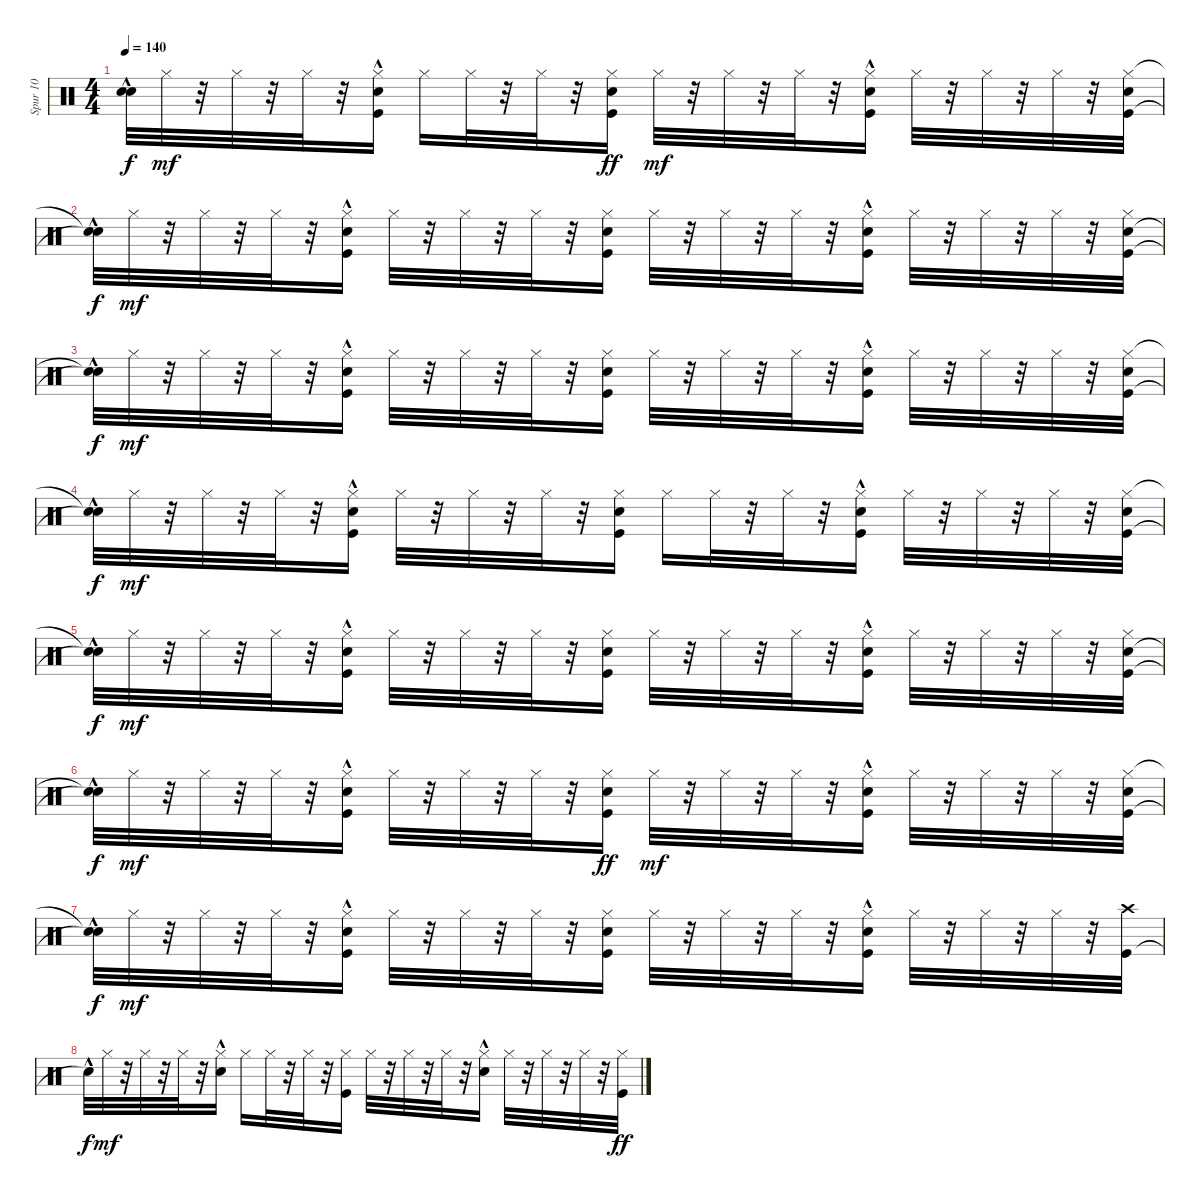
\track ("Spur 10" "Spur 10") {instrument percussion}
\staff {score}
\articulation defaults
\ts (4 4)
\tempo 140
\clef neutral
\ks c
("Snare (hit)"{t} "Snare (hit)"{hac t}).32{dy f} "Hi-Hat (closed)".32{dy mf} r.32 "Hi-Hat (closed)".32 r.32 "Hi-Hat (closed)".32 r.32 ("Kick (hit)"{hac} "Hi-Hat (closed)" "Hand Clap (hit)").16 "Hi-Hat (closed)".16 "Hi-Hat (closed)".32 r.32 "Hi-Hat (closed)".32 r.32 ("Hi-Hat (closed)" "Hand Clap (hit)" "Kick (hit)").16{dy ff} "Hi-Hat (closed)".32{dy mf} r.32 "Hi-Hat (closed)".32 r.32 "Hi-Hat (closed)".32 r.32 ("Kick (hit)"{hac} "Hi-Hat (closed)" "Hand Clap (hit)").16 "Hi-Hat (closed)".32 r.32 "Hi-Hat (closed)".32 r.32 "Hi-Hat (closed)".32 r.32 ("Kick (hit)" "Hi-Hat (closed)" "Hand Clap (hit)").32 |
("Snare (hit)"{hac t} "Snare (hit)"{t}).32{dy f} "Hi-Hat (closed)".32{dy mf} r.32 "Hi-Hat (closed)".32 r.32 "Hi-Hat (closed)".32 r.32 ("Hand Clap (hit)" "Kick (hit)"{hac} "Hi-Hat (closed)").16 "Hi-Hat (closed)".32 r.32 "Hi-Hat (closed)".32 r.32 "Hi-Hat (closed)".32 r.32 ("Kick (hit)" "Hi-Hat (closed)" "Hand Clap (hit)").16 "Hi-Hat (closed)".32 r.32 "Hi-Hat (closed)".32 r.32 "Hi-Hat (closed)".32 r.32 ("Kick (hit)"{hac} "Hi-Hat (closed)" "Hand Clap (hit)").16 "Hi-Hat (closed)".32 r.32 "Hi-Hat (closed)".32 r.32 "Hi-Hat (closed)".32 r.32 ("Hand Clap (hit)" "Kick (hit)" "Hi-Hat (closed)").32 |
("Snare (hit)"{t} "Snare (hit)"{hac t}).32{dy f} "Hi-Hat (closed)".32{dy mf} r.32 "Hi-Hat (closed)".32 r.32 "Hi-Hat (closed)".32 r.32 ("Kick (hit)"{hac} "Hi-Hat (closed)" "Hand Clap (hit)").16 "Hi-Hat (closed)".32 r.32 "Hi-Hat (closed)".32 r.32 "Hi-Hat (closed)".32 r.32 ("Kick (hit)" "Hi-Hat (closed)" "Hand Clap (hit)").16 "Hi-Hat (closed)".32 r.32 "Hi-Hat (closed)".32 r.32 "Hi-Hat (closed)".32 r.32 ("Hand Clap (hit)" "Kick (hit)"{hac} "Hi-Hat (closed)").16 "Hi-Hat (closed)".32 r.32 "Hi-Hat (closed)".32 r.32 "Hi-Hat (closed)".32 r.32 ("Kick (hit)" "Hi-Hat (closed)" "Hand Clap (hit)").32 |
("Snare (hit)"{hac t} "Snare (hit)"{t}).32{dy f} "Hi-Hat (closed)".32{dy mf} r.32 "Hi-Hat (closed)".32 r.32 "Hi-Hat (closed)".32 r.32 ("Hand Clap (hit)" "Kick (hit)"{hac} "Hi-Hat (closed)").16 "Hi-Hat (closed)".32 r.32 "Hi-Hat (closed)".32 r.32 "Hi-Hat (closed)".32 r.32 ("Kick (hit)" "Hi-Hat (closed)" "Hand Clap (hit)").16 "Hi-Hat (closed)".16 "Hi-Hat (closed)".32 r.32 "Hi-Hat (closed)".32 r.32 ("Kick (hit)"{hac} "Hi-Hat (closed)" "Hand Clap (hit)").16 "Hi-Hat (closed)".32 r.32 "Hi-Hat (closed)".32 r.32 "Hi-Hat (closed)".32 r.32 ("Kick (hit)" "Hi-Hat (closed)" "Hand Clap (hit)").32 |
("Snare (hit)"{hac t} "Snare (hit)"{t}).32{dy f} "Hi-Hat (closed)".32{dy mf} r.32 "Hi-Hat (closed)".32 r.32 "Hi-Hat (closed)".32 r.32 ("Hand Clap (hit)" "Kick (hit)"{hac} "Hi-Hat (closed)").16 "Hi-Hat (closed)".32 r.32 "Hi-Hat (closed)".32 r.32 "Hi-Hat (closed)".32 r.32 ("Hand Clap (hit)" "Kick (hit)" "Hi-Hat (closed)").16 "Hi-Hat (closed)".32 r.32 "Hi-Hat (closed)".32 r.32 "Hi-Hat (closed)".32 r.32 ("Kick (hit)"{hac} "Hi-Hat (closed)" "Hand Clap (hit)").16 "Hi-Hat (closed)".32 r.32 "Hi-Hat (closed)".32 r.32 "Hi-Hat (closed)".32 r.32 ("Hand Clap (hit)" "Kick (hit)" "Hi-Hat (closed)").32 |
("Snare (hit)"{t} "Snare (hit)"{hac t}).32{dy f} "Hi-Hat (closed)".32{dy mf} r.32 "Hi-Hat (closed)".32 r.32 "Hi-Hat (closed)".32 r.32 ("Kick (hit)"{hac} "Hi-Hat (closed)" "Hand Clap (hit)").16 "Hi-Hat (closed)".32 r.32 "Hi-Hat (closed)".32 r.32 "Hi-Hat (closed)".32 r.32 ("Hi-Hat (closed)" "Hand Clap (hit)" "Kick (hit)").16{dy ff} "Hi-Hat (closed)".32{dy mf} r.32 "Hi-Hat (closed)".32 r.32 "Hi-Hat (closed)".32 r.32 ("Hand Clap (hit)" "Kick (hit)"{hac} "Hi-Hat (closed)").16 "Hi-Hat (closed)".32 r.32 "Hi-Hat (closed)".32 r.32 "Hi-Hat (closed)".32 r.32 ("Kick (hit)" "Hi-Hat (closed)" "Hand Clap (hit)").32 |
("Snare (hit)"{hac t} "Snare (hit)"{t}).32{dy f} "Hi-Hat (closed)".32{dy mf} r.32 "Hi-Hat (closed)".32 r.32 "Hi-Hat (closed)".32 r.32 ("Kick (hit)"{hac} "Hi-Hat (closed)" "Hand Clap (hit)").16 "Hi-Hat (closed)".32 r.32 "Hi-Hat (closed)".32 r.32 "Hi-Hat (closed)".32 r.32 ("Hand Clap (hit)" "Kick (hit)" "Hi-Hat (closed)").16 "Hi-Hat (closed)".32 r.32 "Hi-Hat (closed)".32 r.32 "Hi-Hat (closed)".32 r.32 ("Kick (hit)"{hac} "Hi-Hat (closed)" "Hand Clap (hit)").16 "Hi-Hat (closed)".32 r.32 "Hi-Hat (closed)".32 r.32 "Hi-Hat (closed)".32 r.32 ("Kick (hit)" "Crash high (hit)").32 |
"Snare (hit)"{hac t}.32{dy f} "Hi-Hat (closed)".32{dy mf} r.32 "Hi-Hat (closed)".32 r.32 "Hi-Hat (closed)".32 r.32 ("Snare (hit) 2"{hac} "Hi-Hat (closed)").16 "Hi-Hat (closed)".16 "Hi-Hat (closed)".32 r.32 "Hi-Hat (closed)".32 r.32 ("Kick (hit)" "Hi-Hat (closed)").16 "Hi-Hat (closed)".32 r.32 "Hi-Hat (closed)".32 r.32 "Hi-Hat (closed)".32 r.32 ("Snare (hit) 2"{hac} "Hi-Hat (closed)").16 "Hi-Hat (closed)".32 r.32 "Hi-Hat (closed)".32 r.32 "Hi-Hat (closed)".32 r.32 ("Hi-Hat (closed)" "Kick (hit)").32{dy ff}
